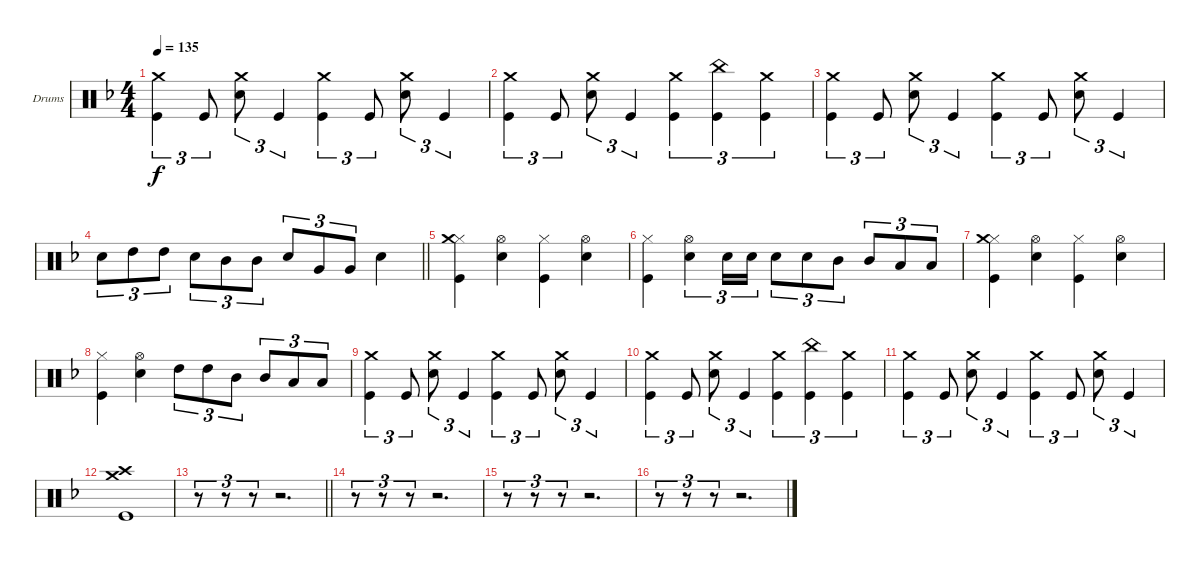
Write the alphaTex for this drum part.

\bracketExtendMode groupsimilarinstruments
\firstSystemTrackNameOrientation horizontal
\otherSystemsTrackNameOrientation horizontal
\track ("drums (Anton Zulganov)" "Drums") {instrument percussion}
\staff {score}
\articulation defaults
\ts (4 4)
\tempo 135
\clef neutral
\ks dminor
("Crash medium (hit)" "Kick (hit)").4{tu (3 2) dy f} "Kick (hit)".8{tu (3 2)} ("Snare (hit) 2" "Crash medium (hit)").8{tu (3 2)} "Kick (hit)".4{tu (3 2)} ("Kick (hit)" "Crash medium (hit)").4{tu (3 2)} "Kick (hit)".8{tu (3 2)} ("Snare (hit) 2" "Crash medium (hit)").8{tu (3 2)} "Kick (hit)".4{tu (3 2)} |
("Kick (hit)" "Crash medium (hit)").4{tu (3 2)} "Kick (hit)".8{tu (3 2)} ("Snare (hit) 2" "Crash medium (hit)").8{tu (3 2)} "Kick (hit)".4{tu (3 2)} ("Crash medium (hit)" "Kick (hit)").4{tu (3 2)} ("Kick (hit)" "China (hit)").4{tu (3 2)} ("Kick (hit)" "Crash medium (hit)").4{tu (3 2)} |
("Crash medium (hit)" "Kick (hit)").4{tu (3 2)} "Kick (hit)".8{tu (3 2)} ("Snare (hit) 2" "Crash medium (hit)").8{tu (3 2)} "Kick (hit)".4{tu (3 2)} ("Kick (hit)" "Crash medium (hit)").4{tu (3 2)} "Kick (hit)".8{tu (3 2)} ("Snare (hit) 2" "Crash medium (hit)").8{tu (3 2)} "Kick (hit)".4{tu (3 2)} |
\barLineRight lightlight "Snare (hit) 2".8{tu (3 2)} "High Tom (hit)".8{tu (3 2)} "High Tom (hit)".8{tu (3 2)} "Snare (hit) 2".8{tu (3 2)} "Mid Tom (hit)".8{tu (3 2)} "Mid Tom (hit)".8{tu (3 2)} "Snare (hit) 2".8{tu (3 2)} "Very Low Tom (hit)".8{tu (3 2)} "Very Low Tom (hit)".8{tu (3 2)} "Snare (hit) 2".4
|
("Hi-Hat (closed)" "Kick (hit)" "Crash medium (hit)").4 ("Hi-Hat (open)" "Snare (hit) 2").4 ("Hi-Hat (closed)" "Kick (hit)").4 ("Hi-Hat (open)" "Snare (hit) 2").4 |
("Hi-Hat (closed)" "Kick (hit)").4 ("Hi-Hat (open)" "Snare (hit) 2").4{tu (3 2)} "Snare (hit) 2".16{tu (3 2)} "Snare (hit) 2".16{tu (3 2)} "Snare (hit) 2".8{tu (3 2)} "Snare (hit) 2".8{tu (3 2)} "Mid Tom (hit)".8{tu (3 2)} "Mid Tom (hit)".8{tu (3 2)} "Low Tom (hit)".8{tu (3 2)} "Low Tom (hit)".8{tu (3 2)} |
("Hi-Hat (closed)" "Kick (hit)" "Crash medium (hit)").4 ("Hi-Hat (open)" "Snare (hit) 2").4 ("Hi-Hat (closed)" "Kick (hit)").4 ("Hi-Hat (open)" "Snare (hit) 2").4 |
("Hi-Hat (closed)" "Kick (hit)").4 ("Hi-Hat (open)" "Snare (hit) 2").4 "High Tom (hit)".8{tu (3 2)} "High Tom (hit)".8{tu (3 2)} "Mid Tom (hit)".8{tu (3 2)} "Mid Tom (hit)".8{tu (3 2)} "Low Tom (hit)".8{tu (3 2)} "Low Tom (hit)".8{tu (3 2)} |
("Crash medium (hit)" "Kick (hit)").4{tu (3 2)} "Kick (hit)".8{tu (3 2)} ("Snare (hit) 2" "Crash medium (hit)").8{tu (3 2)} "Kick (hit)".4{tu (3 2)} ("Kick (hit)" "Crash medium (hit)").4{tu (3 2)} "Kick (hit)".8{tu (3 2)} ("Snare (hit) 2" "Crash medium (hit)").8{tu (3 2)} "Kick (hit)".4{tu (3 2)} |
("Kick (hit)" "Crash medium (hit)").4{tu (3 2)} "Kick (hit)".8{tu (3 2)} ("Snare (hit) 2" "Crash medium (hit)").8{tu (3 2)} "Kick (hit)".4{tu (3 2)} ("Crash medium (hit)" "Kick (hit)").4{tu (3 2)} ("Kick (hit)" "China (hit)").4{tu (3 2)} ("Kick (hit)" "Crash medium (hit)").4{tu (3 2)} |
("Crash medium (hit)" "Kick (hit)").4{tu (3 2)} "Kick (hit)".8{tu (3 2)} ("Snare (hit) 2" "Crash medium (hit)").8{tu (3 2)} "Kick (hit)".4{tu (3 2)} ("Kick (hit)" "Crash medium (hit)").4{tu (3 2)} "Kick (hit)".8{tu (3 2)} ("Snare (hit) 2" "Crash medium (hit)").8{tu (3 2)} "Kick (hit)".4{tu (3 2)} |
("Kick (hit)" "Crash medium (hit)" "Crash high (hit)").1 |
\barLineRight lightlight
r.8{tu (3 2)} r.8{tu (3 2)} r.8{tu (3 2)} r.2{d} |
\section ("" "")
r.8{tu (3 2)} r.8{tu (3 2)} r.8{tu (3 2)} r.2{d} |
r.8{tu (3 2)} r.8{tu (3 2)} r.8{tu (3 2)} r.2{d} |
r.8{tu (3 2)} r.8{tu (3 2)} r.8{tu (3 2)} r.2{d}
